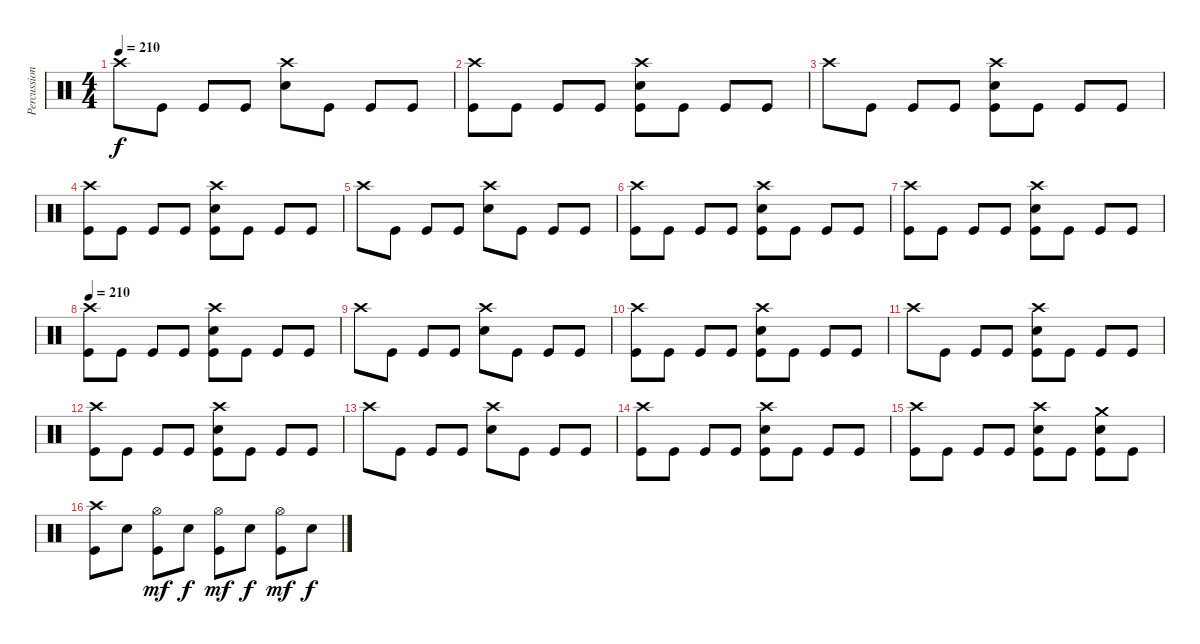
\track ("Percussion" "Percussion") {instrument percussion}
\staff {score}
\articulation defaults
\ts (4 4)
\tempo 210
\clef neutral
\ks c "Crash high (hit)".8{dy f} "Kick (hit)".8 "Kick (hit)".8 "Kick (hit)".8
("Crash high (hit)" "Snare (hit) 2").8 "Kick (hit)".8 "Kick (hit)".8 "Kick (hit)".8 |
("Crash high (hit)" "Kick (hit)").8 "Kick (hit)".8 "Kick (hit)".8 "Kick (hit)".8 ("Crash high (hit)" "Snare (hit) 2" "Kick (hit)").8 "Kick (hit)".8 "Kick (hit)".8 "Kick (hit)".8 |
"Crash high (hit)".8 "Kick (hit)".8 "Kick (hit)".8 "Kick (hit)".8 ("Crash high (hit)" "Snare (hit) 2" "Kick (hit)").8 "Kick (hit)".8 "Kick (hit)".8 "Kick (hit)".8 |
("Crash high (hit)" "Kick (hit)").8 "Kick (hit)".8 "Kick (hit)".8 "Kick (hit)".8 ("Crash high (hit)" "Snare (hit) 2" "Kick (hit)").8 "Kick (hit)".8 "Kick (hit)".8 "Kick (hit)".8 |
"Crash high (hit)".8 "Kick (hit)".8 "Kick (hit)".8 "Kick (hit)".8 ("Crash high (hit)" "Snare (hit) 2").8 "Kick (hit)".8 "Kick (hit)".8 "Kick (hit)".8 |
("Crash high (hit)" "Kick (hit)").8 "Kick (hit)".8 "Kick (hit)".8 "Kick (hit)".8 ("Crash high (hit)" "Snare (hit) 2" "Kick (hit)").8 "Kick (hit)".8 "Kick (hit)".8 "Kick (hit)".8 |
("Crash high (hit)" "Kick (hit)").8 "Kick (hit)".8 "Kick (hit)".8 "Kick (hit)".8 ("Crash high (hit)" "Snare (hit) 2" "Kick (hit)").8 "Kick (hit)".8 "Kick (hit)".8 "Kick (hit)".8 |
\tempo 210
("Crash high (hit)" "Kick (hit)").8 "Kick (hit)".8 "Kick (hit)".8 "Kick (hit)".8 ("Crash high (hit)" "Snare (hit) 2" "Kick (hit)").8 "Kick (hit)".8 "Kick (hit)".8 "Kick (hit)".8 |
"Crash high (hit)".8 "Kick (hit)".8 "Kick (hit)".8 "Kick (hit)".8 ("Crash high (hit)" "Snare (hit) 2").8 "Kick (hit)".8 "Kick (hit)".8 "Kick (hit)".8 |
("Crash high (hit)" "Kick (hit)").8 "Kick (hit)".8 "Kick (hit)".8 "Kick (hit)".8 ("Crash high (hit)" "Snare (hit) 2" "Kick (hit)").8 "Kick (hit)".8 "Kick (hit)".8 "Kick (hit)".8 |
"Crash high (hit)".8 "Kick (hit)".8 "Kick (hit)".8 "Kick (hit)".8 ("Crash high (hit)" "Snare (hit) 2" "Kick (hit)").8 "Kick (hit)".8 "Kick (hit)".8 "Kick (hit)".8 |
("Crash high (hit)" "Kick (hit)").8 "Kick (hit)".8 "Kick (hit)".8 "Kick (hit)".8 ("Crash high (hit)" "Snare (hit) 2" "Kick (hit)").8 "Kick (hit)".8 "Kick (hit)".8 "Kick (hit)".8 |
"Crash high (hit)".8 "Kick (hit)".8 "Kick (hit)".8 "Kick (hit)".8 ("Crash high (hit)" "Snare (hit) 2").8 "Kick (hit)".8 "Kick (hit)".8 "Kick (hit)".8 |
("Crash high (hit)" "Kick (hit)").8 "Kick (hit)".8 "Kick (hit)".8 "Kick (hit)".8 ("Crash high (hit)" "Snare (hit) 2" "Kick (hit)").8 "Kick (hit)".8 "Kick (hit)".8 "Kick (hit)".8 |
("Crash high (hit)" "Kick (hit)").8 "Kick (hit)".8 "Kick (hit)".8 "Kick (hit)".8 ("Crash high (hit)" "Snare (hit) 2" "Kick (hit)").8 "Kick (hit)".8 ("Crash medium (hit)" "Snare (hit) 2" "Kick (hit)").8 "Kick (hit)".8 |
("Crash high (hit)" "Kick (hit)").8 "Snare (hit) 2".8 ("Hi-Hat (open)" "Kick (hit)").8{dy mf} "Snare (hit) 2".8{dy f} ("Hi-Hat (open)" "Kick (hit)").8{dy mf} "Snare (hit) 2".8{dy f} ("Hi-Hat (open)" "Kick (hit)").8{dy mf} "Snare (hit) 2".8{dy f}
